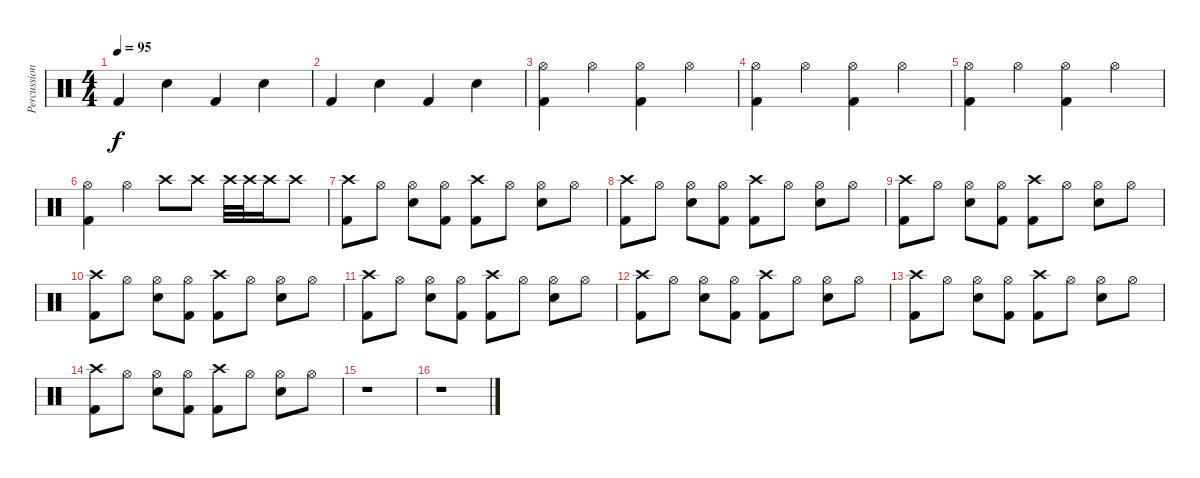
\track ("Percussion" "Percussion") {instrument percussion}
\staff {score}
\articulation defaults
\ts (4 4)
\tempo 95
\clef neutral
\ks c "Kick (hit) 2".4{dy f} "Snare (hit) 2".4 "Kick (hit) 2".4 "Snare (hit) 2".4
|
"Kick (hit) 2".4 "Snare (hit) 2".4 "Kick (hit) 2".4 "Snare (hit) 2".4 |
("Hi-Hat (open)" "Kick (hit) 2").4 "Hi-Hat (open)".4 ("Hi-Hat (open)" "Kick (hit) 2").4 "Hi-Hat (open)".4 |
("Hi-Hat (open)" "Kick (hit) 2").4 "Hi-Hat (open)".4 ("Hi-Hat (open)" "Kick (hit) 2").4 "Hi-Hat (open)".4 |
("Hi-Hat (open)" "Kick (hit) 2").4 "Hi-Hat (open)".4 ("Hi-Hat (open)" "Kick (hit) 2").4 "Hi-Hat (open)".4 |
("Hi-Hat (open)" "Kick (hit) 2").4 "Hi-Hat (open)".4 "Crash high (hit)".8 "Crash high (hit)".8 "Crash high (hit)".32 "Crash high (hit)".32 "Crash high (hit)".16 "Crash high (hit)".8 |
("Crash high (hit)" "Kick (hit) 2").8 "Hi-Hat (open)".8 ("Hi-Hat (open)" "Snare (hit) 2").8 ("Hi-Hat (open)" "Kick (hit) 2").8 ("Crash high (hit)" "Kick (hit) 2").8 "Hi-Hat (open)".8 ("Hi-Hat (open)" "Snare (hit) 2").8 "Hi-Hat (open)".8 |
("Crash high (hit)" "Kick (hit) 2").8 "Hi-Hat (open)".8 ("Hi-Hat (open)" "Snare (hit) 2").8 ("Hi-Hat (open)" "Kick (hit) 2").8 ("Crash high (hit)" "Kick (hit) 2").8 "Hi-Hat (open)".8 ("Hi-Hat (open)" "Snare (hit) 2").8 "Hi-Hat (open)".8 |
("Crash high (hit)" "Kick (hit) 2").8 "Hi-Hat (open)".8 ("Hi-Hat (open)" "Snare (hit) 2").8 ("Hi-Hat (open)" "Kick (hit) 2").8 ("Crash high (hit)" "Kick (hit) 2").8 "Hi-Hat (open)".8 ("Hi-Hat (open)" "Snare (hit) 2").8 "Hi-Hat (open)".8 |
("Crash high (hit)" "Kick (hit) 2").8 "Hi-Hat (open)".8 ("Hi-Hat (open)" "Snare (hit) 2").8 ("Hi-Hat (open)" "Kick (hit) 2").8 ("Crash high (hit)" "Kick (hit) 2").8 "Hi-Hat (open)".8 ("Hi-Hat (open)" "Snare (hit) 2").8 "Hi-Hat (open)".8 |
("Crash high (hit)" "Kick (hit) 2").8 "Hi-Hat (open)".8 ("Hi-Hat (open)" "Snare (hit) 2").8 ("Hi-Hat (open)" "Kick (hit) 2").8 ("Crash high (hit)" "Kick (hit) 2").8 "Hi-Hat (open)".8 ("Hi-Hat (open)" "Snare (hit) 2").8 "Hi-Hat (open)".8 |
("Crash high (hit)" "Kick (hit) 2").8 "Hi-Hat (open)".8 ("Hi-Hat (open)" "Snare (hit) 2").8 ("Hi-Hat (open)" "Kick (hit) 2").8 ("Crash high (hit)" "Kick (hit) 2").8 "Hi-Hat (open)".8 ("Hi-Hat (open)" "Snare (hit) 2").8 "Hi-Hat (open)".8 |
("Crash high (hit)" "Kick (hit) 2").8 "Hi-Hat (open)".8 ("Hi-Hat (open)" "Snare (hit) 2").8 ("Hi-Hat (open)" "Kick (hit) 2").8 ("Crash high (hit)" "Kick (hit) 2").8 "Hi-Hat (open)".8 ("Hi-Hat (open)" "Snare (hit) 2").8 "Hi-Hat (open)".8 |
("Crash high (hit)" "Kick (hit) 2").8 "Hi-Hat (open)".8 ("Hi-Hat (open)" "Snare (hit) 2").8 ("Hi-Hat (open)" "Kick (hit) 2").8 ("Crash high (hit)" "Kick (hit) 2").8 "Hi-Hat (open)".8 ("Hi-Hat (open)" "Snare (hit) 2").8 "Hi-Hat (open)".8 |
r.1 |
r.1
